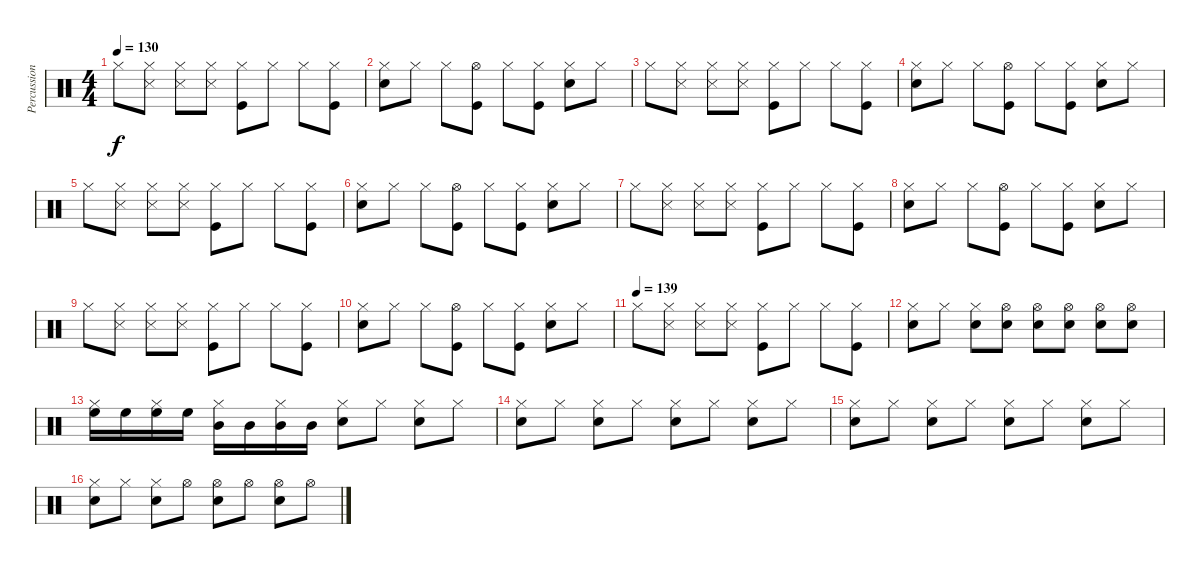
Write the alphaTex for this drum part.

\track ("Percussion" "Percussion") {instrument percussion}
\staff {score}
\articulation defaults
\ts (4 4)
\tempo 130
\clef neutral
\ks c "Hi-Hat (closed)".8{dy f}
("Snare (side stick) 3" "Hi-Hat (closed)").8 ("Snare (side stick) 3" "Hi-Hat (closed)").8 ("Snare (side stick) 3" "Hi-Hat (closed)").8 ("Kick (hit)" "Hi-Hat (closed)").8 "Hi-Hat (closed)".8 "Hi-Hat (closed)".8 ("Kick (hit)" "Hi-Hat (closed)").8 |
("Electric Snare (hit)" "Hi-Hat (closed)").8 "Hi-Hat (closed)".8 "Hi-Hat (closed)".8 ("Kick (hit)" "Hi-Hat (open)").8 "Hi-Hat (closed)".8 ("Kick (hit)" "Hi-Hat (closed)").8 ("Electric Snare (hit)" "Hi-Hat (closed)").8 "Hi-Hat (closed)".8 |
"Hi-Hat (closed)".8 ("Snare (side stick) 3" "Hi-Hat (closed)").8 ("Snare (side stick) 3" "Hi-Hat (closed)").8 ("Snare (side stick) 3" "Hi-Hat (closed)").8 ("Kick (hit)" "Hi-Hat (closed)").8 "Hi-Hat (closed)".8 "Hi-Hat (closed)".8 ("Kick (hit)" "Hi-Hat (closed)").8 |
("Electric Snare (hit)" "Hi-Hat (closed)").8 "Hi-Hat (closed)".8 "Hi-Hat (closed)".8 ("Kick (hit)" "Hi-Hat (open)").8 "Hi-Hat (closed)".8 ("Kick (hit)" "Hi-Hat (closed)").8 ("Electric Snare (hit)" "Hi-Hat (closed)").8 "Hi-Hat (closed)".8 |
"Hi-Hat (closed)".8 ("Snare (side stick) 3" "Hi-Hat (closed)").8 ("Snare (side stick) 3" "Hi-Hat (closed)").8 ("Snare (side stick) 3" "Hi-Hat (closed)").8 ("Kick (hit)" "Hi-Hat (closed)").8 "Hi-Hat (closed)".8 "Hi-Hat (closed)".8 ("Kick (hit)" "Hi-Hat (closed)").8 |
("Electric Snare (hit)" "Hi-Hat (closed)").8 "Hi-Hat (closed)".8 "Hi-Hat (closed)".8 ("Kick (hit)" "Hi-Hat (open)").8 "Hi-Hat (closed)".8 ("Kick (hit)" "Hi-Hat (closed)").8 ("Electric Snare (hit)" "Hi-Hat (closed)").8 "Hi-Hat (closed)".8 |
"Hi-Hat (closed)".8 ("Snare (side stick) 3" "Hi-Hat (closed)").8 ("Snare (side stick) 3" "Hi-Hat (closed)").8 ("Snare (side stick) 3" "Hi-Hat (closed)").8 ("Kick (hit)" "Hi-Hat (closed)").8 "Hi-Hat (closed)".8 "Hi-Hat (closed)".8 ("Kick (hit)" "Hi-Hat (closed)").8 |
("Electric Snare (hit)" "Hi-Hat (closed)").8 "Hi-Hat (closed)".8 "Hi-Hat (closed)".8 ("Kick (hit)" "Hi-Hat (open)").8 "Hi-Hat (closed)".8 ("Kick (hit)" "Hi-Hat (closed)").8 ("Electric Snare (hit)" "Hi-Hat (closed)").8 "Hi-Hat (closed)".8 |
"Hi-Hat (closed)".8 ("Snare (side stick) 3" "Hi-Hat (closed)").8 ("Snare (side stick) 3" "Hi-Hat (closed)").8 ("Snare (side stick) 3" "Hi-Hat (closed)").8 ("Kick (hit)" "Hi-Hat (closed)").8 "Hi-Hat (closed)".8 "Hi-Hat (closed)".8 ("Kick (hit)" "Hi-Hat (closed)").8 |
("Electric Snare (hit)" "Hi-Hat (closed)").8 "Hi-Hat (closed)".8 "Hi-Hat (closed)".8 ("Kick (hit)" "Hi-Hat (open)").8 "Hi-Hat (closed)".8 ("Kick (hit)" "Hi-Hat (closed)").8 ("Electric Snare (hit)" "Hi-Hat (closed)").8 "Hi-Hat (closed)".8 |
\tempo (139)
"Hi-Hat (closed)".8 ("Snare (side stick) 3" "Hi-Hat (closed)").8 ("Snare (side stick) 3" "Hi-Hat (closed)").8 ("Snare (side stick) 3" "Hi-Hat (closed)").8 ("Kick (hit)" "Hi-Hat (closed)").8 "Hi-Hat (closed)".8 "Hi-Hat (closed)".8 ("Kick (hit)" "Hi-Hat (closed)").8 |
("Electric Snare (hit)" "Hi-Hat (closed)").8 "Hi-Hat (closed)".8 ("Electric Snare (hit)" "Hi-Hat (closed)").8 ("Electric Snare (hit)" "Hi-Hat (open)").8 ("Electric Snare (hit)" "Hi-Hat (open)").8 ("Electric Snare (hit)" "Hi-Hat (open)").8 ("Electric Snare (hit)" "Hi-Hat (open)").8 ("Electric Snare (hit)" "Hi-Hat (open)").8 |
("High Floor Tom (hit)" "Hi-Hat (closed)").16 "High Floor Tom (hit)".16 ("High Floor Tom (hit)" "Hi-Hat (closed)").16 "High Floor Tom (hit)".16 ("Mid Tom (hit)" "Hi-Hat (closed)").16 "Mid Tom (hit)".16 ("Mid Tom (hit)" "Hi-Hat (closed)").16 "Mid Tom (hit)".16 ("Electric Snare (hit)" "Hi-Hat (closed)").8 "Hi-Hat (closed)".8 ("Electric Snare (hit)" "Hi-Hat (closed)").8 "Hi-Hat (closed)".8 |
("Electric Snare (hit)" "Hi-Hat (closed)").8 "Hi-Hat (closed)".8 ("Electric Snare (hit)" "Hi-Hat (closed)").8 "Hi-Hat (closed)".8 ("Electric Snare (hit)" "Hi-Hat (closed)").8 "Hi-Hat (closed)".8 ("Electric Snare (hit)" "Hi-Hat (closed)").8 "Hi-Hat (closed)".8 |
("Electric Snare (hit)" "Hi-Hat (closed)").8 "Hi-Hat (closed)".8 ("Electric Snare (hit)" "Hi-Hat (closed)").8 "Hi-Hat (closed)".8 ("Electric Snare (hit)" "Hi-Hat (closed)").8 "Hi-Hat (closed)".8 ("Electric Snare (hit)" "Hi-Hat (closed)").8 "Hi-Hat (closed)".8 |
("Electric Snare (hit)" "Hi-Hat (closed)").8 "Hi-Hat (closed)".8 ("Electric Snare (hit)" "Hi-Hat (closed)").8 "Hi-Hat (open)".8 ("Electric Snare (hit)" "Hi-Hat (open)").8 "Hi-Hat (open)".8 ("Electric Snare (hit)" "Hi-Hat (open)").8 "Hi-Hat (open)".8
